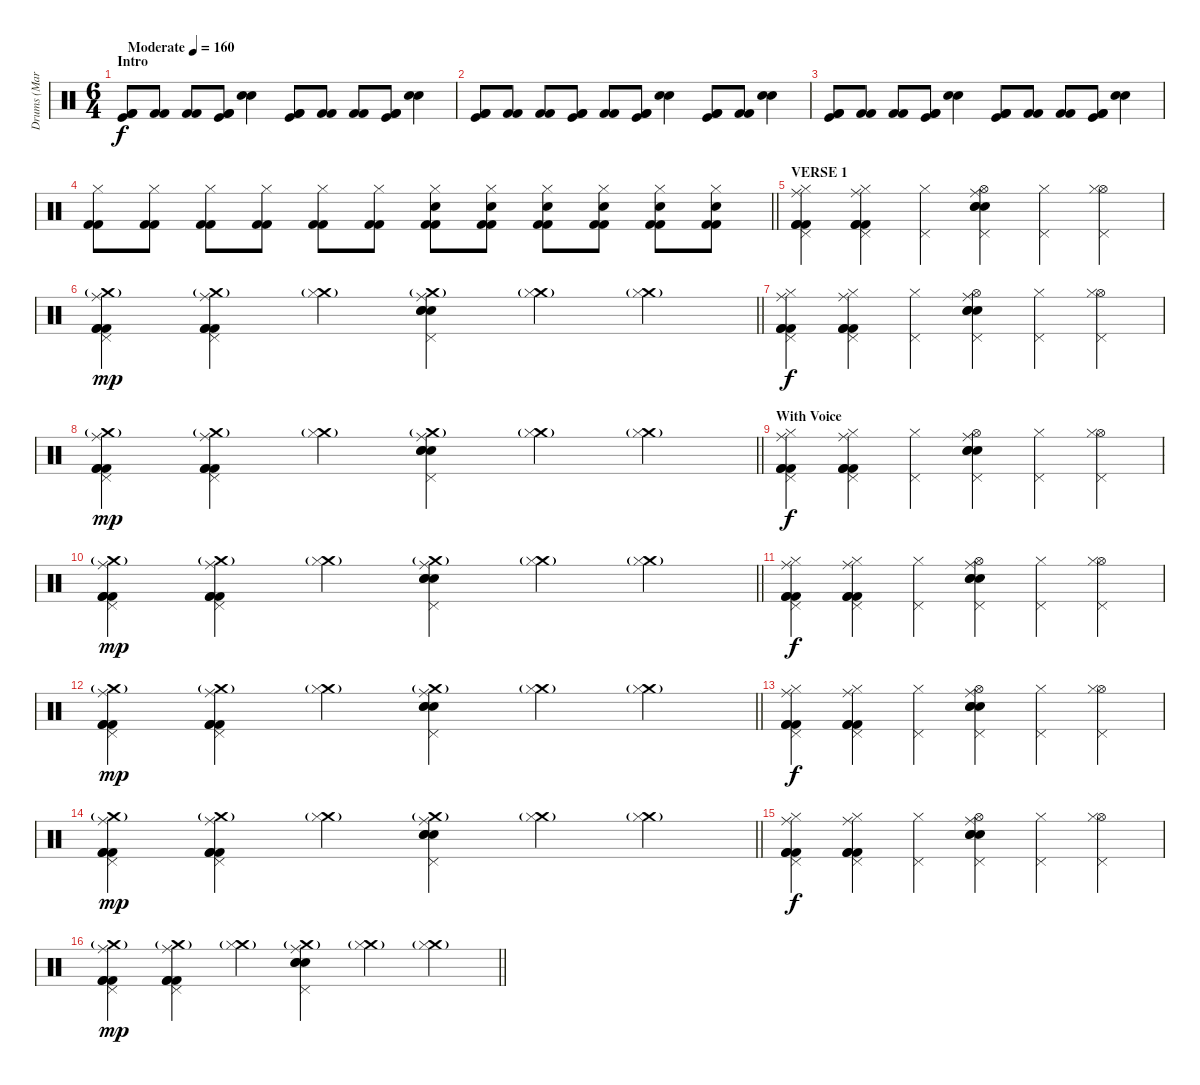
\track ("Drums (Marc Allen)" "Drums (Mar") {instrument percussion}
\staff {score}
\articulation defaults
\ts (6 4)
\section ("" "Intro")
\tempo (160 "Moderate")
\clef neutral
\ks c
("Kick (hit) 2" "Kick (hit) 2" "Kick (hit)").8{dy f} ("Kick (hit) 2" "Kick (hit) 2").8 ("Kick (hit) 2" "Kick (hit) 2").8 ("Kick (hit) 2" "Kick (hit) 2" "Kick (hit)").8 ("Electric Snare (hit)" "Electric Snare (hit)").4 ("Kick (hit) 2" "Kick (hit) 2" "Kick (hit)").8 ("Kick (hit) 2" "Kick (hit) 2").8 ("Kick (hit) 2" "Kick (hit) 2").8 ("Kick (hit) 2" "Kick (hit) 2" "Kick (hit)").8 ("Electric Snare (hit)" "Electric Snare (hit)").4 |
("Kick (hit) 2" "Kick (hit) 2" "Kick (hit)").8 ("Kick (hit) 2" "Kick (hit) 2").8 ("Kick (hit) 2" "Kick (hit) 2").8 ("Kick (hit) 2" "Kick (hit) 2" "Kick (hit)").8 ("Kick (hit) 2" "Kick (hit) 2").8 ("Kick (hit) 2" "Kick (hit) 2" "Kick (hit)").8 ("Electric Snare (hit)" "Electric Snare (hit)").4 ("Kick (hit) 2" "Kick (hit) 2" "Kick (hit)").8 ("Kick (hit) 2" "Kick (hit) 2").8 ("Electric Snare (hit)" "Electric Snare (hit)").4 |
("Kick (hit) 2" "Kick (hit) 2" "Kick (hit)").8 ("Kick (hit) 2" "Kick (hit) 2").8 ("Kick (hit) 2" "Kick (hit) 2").8 ("Kick (hit) 2" "Kick (hit) 2" "Kick (hit)").8 ("Electric Snare (hit)" "Electric Snare (hit)").4 ("Kick (hit) 2" "Kick (hit) 2" "Kick (hit)").8 ("Kick (hit) 2" "Kick (hit) 2").8 ("Kick (hit) 2" "Kick (hit) 2").8 ("Kick (hit) 2" "Kick (hit) 2" "Kick (hit)").8 ("Electric Snare (hit)" "Electric Snare (hit)").4 |
\barLineRight lightlight
("Hi-Hat (closed)" "Kick (hit) 2" "Kick (hit) 2").8 ("Hi-Hat (closed)" "Kick (hit) 2" "Kick (hit) 2").8 ("Hi-Hat (closed)" "Kick (hit) 2" "Kick (hit) 2").8 ("Hi-Hat (closed)" "Kick (hit) 2" "Kick (hit) 2").8 ("Hi-Hat (closed)" "Kick (hit) 2" "Kick (hit) 2").8 ("Hi-Hat (closed)" "Kick (hit) 2" "Kick (hit) 2").8 ("Hi-Hat (closed)" "Kick (hit) 2" "Electric Snare (hit)" "Kick (hit) 2").8 ("Hi-Hat (closed)" "Kick (hit) 2" "Electric Snare (hit)" "Kick (hit) 2").8 ("Hi-Hat (closed)" "Kick (hit) 2" "Electric Snare (hit)" "Kick (hit) 2").8 ("Hi-Hat (closed)" "Kick (hit) 2" "Electric Snare (hit)" "Kick (hit) 2").8 ("Hi-Hat (closed)" "Kick (hit) 2" "Electric Snare (hit)" "Kick (hit) 2").8 ("Hi-Hat (closed)" "Kick (hit) 2" "Electric Snare (hit)" "Kick (hit) 2").8 |
\section ("" "VERSE 1")
("Hi-Hat (closed)" "Pedal Hi-Hat (hit)" "Ride (middle)" "Kick (hit) 2" "Kick (hit) 2" "Kick (hit) 2").4 ("Hi-Hat (closed)" "Pedal Hi-Hat (hit)" "Ride (middle)" "Kick (hit) 2" "Kick (hit) 2" "Kick (hit) 2").4 ("Hi-Hat (closed)" "Pedal Hi-Hat (hit)").4 ("Hi-Hat (open)" "Pedal Hi-Hat (hit)" "Ride (middle)" "Electric Snare (hit)" "Electric Snare (hit)" "Electric Snare (hit)").4 ("Hi-Hat (closed)" "Pedal Hi-Hat (hit)").4 ("Hi-Hat (open)" "Hi-Hat (closed)" "Pedal Hi-Hat (hit)").4 |
\barLineRight lightlight
("Crash medium (hit)"{g} "Pedal Hi-Hat (hit)" "Ride (middle)" "Kick (hit) 2" "Kick (hit) 2" "Kick (hit) 2").4{dy mp} ("Crash medium (hit)"{g} "Pedal Hi-Hat (hit)" "Ride (middle)" "Kick (hit) 2" "Kick (hit) 2" "Kick (hit) 2").4 ("Crash medium (hit)"{g} "Hi-Hat (closed)").4 ("Crash medium (hit)"{g} "Pedal Hi-Hat (hit)" "Ride (middle)" "Electric Snare (hit)" "Electric Snare (hit)" "Electric Snare (hit)").4 ("Crash medium (hit)"{g} "Hi-Hat (closed)").4 ("Crash medium (hit)"{g} "Hi-Hat (closed)").4 |
("Hi-Hat (closed)" "Pedal Hi-Hat (hit)" "Ride (middle)" "Kick (hit) 2" "Kick (hit) 2" "Kick (hit) 2").4{dy f} ("Hi-Hat (closed)" "Pedal Hi-Hat (hit)" "Ride (middle)" "Kick (hit) 2" "Kick (hit) 2" "Kick (hit) 2").4 ("Hi-Hat (closed)" "Pedal Hi-Hat (hit)").4 ("Hi-Hat (open)" "Pedal Hi-Hat (hit)" "Ride (middle)" "Electric Snare (hit)" "Electric Snare (hit)" "Electric Snare (hit)").4 ("Hi-Hat (closed)" "Pedal Hi-Hat (hit)").4 ("Hi-Hat (open)" "Hi-Hat (closed)" "Pedal Hi-Hat (hit)").4 |
\barLineRight lightlight
("Crash medium (hit)"{g} "Pedal Hi-Hat (hit)" "Ride (middle)" "Kick (hit) 2" "Kick (hit) 2" "Kick (hit) 2").4{dy mp} ("Crash medium (hit)"{g} "Pedal Hi-Hat (hit)" "Ride (middle)" "Kick (hit) 2" "Kick (hit) 2" "Kick (hit) 2").4 ("Crash medium (hit)"{g} "Hi-Hat (closed)").4 ("Crash medium (hit)"{g} "Pedal Hi-Hat (hit)" "Ride (middle)" "Electric Snare (hit)" "Electric Snare (hit)" "Electric Snare (hit)").4 ("Crash medium (hit)"{g} "Hi-Hat (closed)").4 ("Crash medium (hit)"{g} "Hi-Hat (closed)").4 |
\section ("" "With Voice")
("Hi-Hat (closed)" "Pedal Hi-Hat (hit)" "Ride (middle)" "Kick (hit) 2" "Kick (hit) 2" "Kick (hit) 2").4{dy f} ("Hi-Hat (closed)" "Pedal Hi-Hat (hit)" "Ride (middle)" "Kick (hit) 2" "Kick (hit) 2" "Kick (hit) 2").4 ("Hi-Hat (closed)" "Pedal Hi-Hat (hit)").4 ("Hi-Hat (open)" "Pedal Hi-Hat (hit)" "Ride (middle)" "Electric Snare (hit)" "Electric Snare (hit)" "Electric Snare (hit)").4 ("Hi-Hat (closed)" "Pedal Hi-Hat (hit)").4 ("Hi-Hat (open)" "Hi-Hat (closed)" "Pedal Hi-Hat (hit)").4 |
\barLineRight lightlight
("Crash medium (hit)"{g} "Pedal Hi-Hat (hit)" "Ride (middle)" "Kick (hit) 2" "Kick (hit) 2" "Kick (hit) 2").4{dy mp} ("Crash medium (hit)"{g} "Pedal Hi-Hat (hit)" "Ride (middle)" "Kick (hit) 2" "Kick (hit) 2" "Kick (hit) 2").4 ("Crash medium (hit)"{g} "Hi-Hat (closed)").4 ("Crash medium (hit)"{g} "Pedal Hi-Hat (hit)" "Ride (middle)" "Electric Snare (hit)" "Electric Snare (hit)" "Electric Snare (hit)").4 ("Crash medium (hit)"{g} "Hi-Hat (closed)").4 ("Crash medium (hit)"{g} "Hi-Hat (closed)").4 |
("Hi-Hat (closed)" "Pedal Hi-Hat (hit)" "Ride (middle)" "Kick (hit) 2" "Kick (hit) 2" "Kick (hit) 2").4{dy f} ("Hi-Hat (closed)" "Pedal Hi-Hat (hit)" "Ride (middle)" "Kick (hit) 2" "Kick (hit) 2" "Kick (hit) 2").4 ("Hi-Hat (closed)" "Pedal Hi-Hat (hit)").4 ("Hi-Hat (open)" "Pedal Hi-Hat (hit)" "Ride (middle)" "Electric Snare (hit)" "Electric Snare (hit)" "Electric Snare (hit)").4 ("Hi-Hat (closed)" "Pedal Hi-Hat (hit)").4 ("Hi-Hat (open)" "Hi-Hat (closed)" "Pedal Hi-Hat (hit)").4 |
\barLineRight lightlight
("Crash medium (hit)"{g} "Pedal Hi-Hat (hit)" "Ride (middle)" "Kick (hit) 2" "Kick (hit) 2" "Kick (hit) 2").4{dy mp} ("Crash medium (hit)"{g} "Pedal Hi-Hat (hit)" "Ride (middle)" "Kick (hit) 2" "Kick (hit) 2" "Kick (hit) 2").4 ("Crash medium (hit)"{g} "Hi-Hat (closed)").4 ("Crash medium (hit)"{g} "Pedal Hi-Hat (hit)" "Ride (middle)" "Electric Snare (hit)" "Electric Snare (hit)" "Electric Snare (hit)").4 ("Crash medium (hit)"{g} "Hi-Hat (closed)").4 ("Crash medium (hit)"{g} "Hi-Hat (closed)").4 |
("Hi-Hat (closed)" "Pedal Hi-Hat (hit)" "Ride (middle)" "Kick (hit) 2" "Kick (hit) 2" "Kick (hit) 2").4{dy f} ("Hi-Hat (closed)" "Pedal Hi-Hat (hit)" "Ride (middle)" "Kick (hit) 2" "Kick (hit) 2" "Kick (hit) 2").4 ("Hi-Hat (closed)" "Pedal Hi-Hat (hit)").4 ("Hi-Hat (open)" "Pedal Hi-Hat (hit)" "Ride (middle)" "Electric Snare (hit)" "Electric Snare (hit)" "Electric Snare (hit)").4 ("Hi-Hat (closed)" "Pedal Hi-Hat (hit)").4 ("Hi-Hat (open)" "Hi-Hat (closed)" "Pedal Hi-Hat (hit)").4 |
\barLineRight lightlight
("Crash medium (hit)"{g} "Pedal Hi-Hat (hit)" "Ride (middle)" "Kick (hit) 2" "Kick (hit) 2" "Kick (hit) 2").4{dy mp} ("Crash medium (hit)"{g} "Pedal Hi-Hat (hit)" "Ride (middle)" "Kick (hit) 2" "Kick (hit) 2" "Kick (hit) 2").4 ("Crash medium (hit)"{g} "Hi-Hat (closed)").4 ("Crash medium (hit)"{g} "Pedal Hi-Hat (hit)" "Ride (middle)" "Electric Snare (hit)" "Electric Snare (hit)" "Electric Snare (hit)").4 ("Crash medium (hit)"{g} "Hi-Hat (closed)").4 ("Crash medium (hit)"{g} "Hi-Hat (closed)").4 |
("Hi-Hat (closed)" "Pedal Hi-Hat (hit)" "Ride (middle)" "Kick (hit) 2" "Kick (hit) 2" "Kick (hit) 2").4{dy f} ("Hi-Hat (closed)" "Pedal Hi-Hat (hit)" "Ride (middle)" "Kick (hit) 2" "Kick (hit) 2" "Kick (hit) 2").4 ("Hi-Hat (closed)" "Pedal Hi-Hat (hit)").4 ("Hi-Hat (open)" "Pedal Hi-Hat (hit)" "Ride (middle)" "Electric Snare (hit)" "Electric Snare (hit)" "Electric Snare (hit)").4 ("Hi-Hat (closed)" "Pedal Hi-Hat (hit)").4 ("Hi-Hat (open)" "Hi-Hat (closed)" "Pedal Hi-Hat (hit)").4 |
\barLineRight lightlight
("Crash medium (hit)"{g} "Pedal Hi-Hat (hit)" "Ride (middle)" "Kick (hit) 2" "Kick (hit) 2" "Kick (hit) 2").4{dy mp} ("Crash medium (hit)"{g} "Pedal Hi-Hat (hit)" "Ride (middle)" "Kick (hit) 2" "Kick (hit) 2" "Kick (hit) 2").4 ("Crash medium (hit)"{g} "Hi-Hat (closed)").4 ("Crash medium (hit)"{g} "Pedal Hi-Hat (hit)" "Ride (middle)" "Electric Snare (hit)" "Electric Snare (hit)" "Electric Snare (hit)").4 ("Crash medium (hit)"{g} "Hi-Hat (closed)").4 ("Crash medium (hit)"{g} "Hi-Hat (closed)").4
